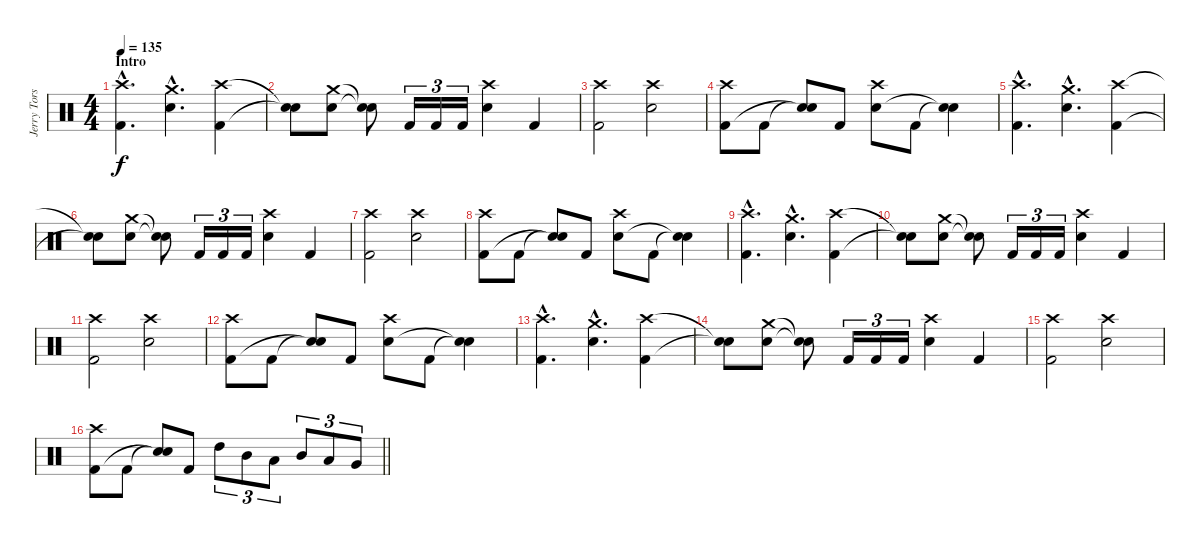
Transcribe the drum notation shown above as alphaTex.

\track ("Jerry Torstensson" "Jerry Tors") {instrument percussion}
\staff {score}
\articulation defaults
\ts (4 4)
\section ("" "Intro")
\tempo 135
\clef neutral
\ks c
("Crash high (hit)"{hac} "Kick (hit) 2"{hac}).4{d dy f} ("Crash medium (hit)"{hac} "Snare (hit) 2"{hac}).4{d} ("Crash high (hit)" "Kick (hit) 2").4 |
("Snare (hit)"{t} "Snare (hit)"{t}).8 ("Crash medium (hit)" "Snare (hit) 2").8 ("Snare (hit)"{t} "Snare (hit)"{t}).8 "Kick (hit) 2".16{tu (3 2)} "Kick (hit) 2".16{tu (3 2)} "Kick (hit) 2".16{tu (3 2)} ("Crash high (hit)" "Snare (hit) 2").4 "Kick (hit) 2".4 |
("Crash high (hit)" "Kick (hit) 2").2 ("Crash high (hit)" "Snare (hit) 2").2 |
("Crash high (hit)" "Kick (hit) 2").8 "Kick (hit) 2".8 ("Snare (hit)"{t} "Snare (hit)"{t}).8 "Kick (hit) 2".8 ("Crash high (hit)" "Snare (hit) 2").8 "Kick (hit) 2".8 ("Snare (hit)"{t} "Snare (hit)"{t}).4 |
("Crash high (hit)"{hac} "Kick (hit) 2"{hac}).4{d} ("Crash medium (hit)"{hac} "Snare (hit) 2"{hac}).4{d} ("Crash high (hit)" "Kick (hit) 2").4 |
("Snare (hit)"{t} "Snare (hit)"{t}).8 ("Crash medium (hit)" "Snare (hit) 2").8 ("Snare (hit)"{t} "Snare (hit)"{t}).8 "Kick (hit) 2".16{tu (3 2)} "Kick (hit) 2".16{tu (3 2)} "Kick (hit) 2".16{tu (3 2)} ("Crash high (hit)" "Snare (hit) 2").4 "Kick (hit) 2".4 |
("Crash high (hit)" "Kick (hit) 2").2 ("Crash high (hit)" "Snare (hit) 2").2 |
("Crash high (hit)" "Kick (hit) 2").8 "Kick (hit) 2".8 ("Snare (hit)"{t} "Snare (hit)"{t}).8 "Kick (hit) 2".8 ("Crash high (hit)" "Snare (hit) 2").8 "Kick (hit) 2".8 ("Snare (hit)"{t} "Snare (hit)"{t}).4 |
("Crash high (hit)"{hac} "Kick (hit) 2"{hac}).4{d} ("Crash medium (hit)"{hac} "Snare (hit) 2"{hac}).4{d} ("Crash high (hit)" "Kick (hit) 2").4 |
("Snare (hit)"{t} "Snare (hit)"{t}).8 ("Crash medium (hit)" "Snare (hit) 2").8 ("Snare (hit)"{t} "Snare (hit)"{t}).8 "Kick (hit) 2".16{tu (3 2)} "Kick (hit) 2".16{tu (3 2)} "Kick (hit) 2".16{tu (3 2)} ("Crash high (hit)" "Snare (hit) 2").4 "Kick (hit) 2".4 |
("Crash high (hit)" "Kick (hit) 2").2 ("Crash high (hit)" "Snare (hit) 2").2 |
("Crash high (hit)" "Kick (hit) 2").8 "Kick (hit) 2".8 ("Snare (hit)"{t} "Snare (hit)"{t}).8 "Kick (hit) 2".8 ("Crash high (hit)" "Snare (hit) 2").8 "Kick (hit) 2".8 ("Snare (hit)"{t} "Snare (hit)"{t}).4 |
("Crash high (hit)"{hac} "Kick (hit) 2"{hac}).4{d} ("Crash medium (hit)"{hac} "Snare (hit) 2"{hac}).4{d} ("Crash high (hit)" "Kick (hit) 2").4 |
("Snare (hit)"{t} "Snare (hit)"{t}).8 ("Crash medium (hit)" "Snare (hit) 2").8 ("Snare (hit)"{t} "Snare (hit)"{t}).8 "Kick (hit) 2".16{tu (3 2)} "Kick (hit) 2".16{tu (3 2)} "Kick (hit) 2".16{tu (3 2)} ("Crash high (hit)" "Snare (hit) 2").4 "Kick (hit) 2".4 |
("Crash high (hit)" "Kick (hit) 2").2 ("Crash high (hit)" "Snare (hit) 2").2 |
\barLineRight lightlight
("Crash high (hit)" "Kick (hit) 2").8 "Kick (hit) 2".8 ("Snare (hit)"{t} "Snare (hit)"{t}).8 "Kick (hit) 2".8 "High Tom (hit)".8{tu (3 2)} "Mid Tom (hit)".8{tu (3 2)} "Low Tom (hit)".8{tu (3 2)} "Mid Tom (hit)".8{tu (3 2)} "Low Tom (hit)".8{tu (3 2)} "Very Low Tom (hit)".8{tu (3 2)}
